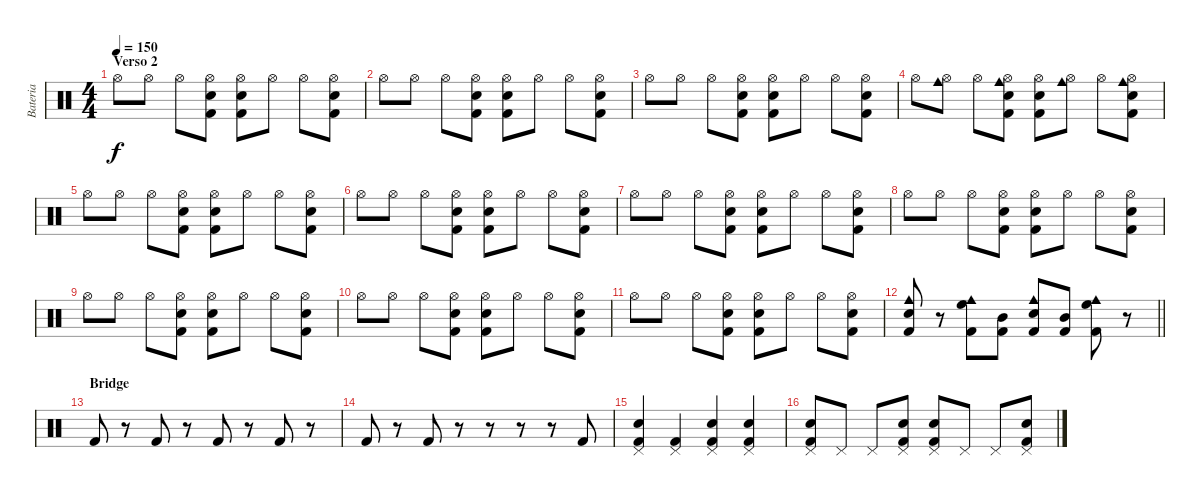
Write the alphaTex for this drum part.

\track ("Bateria" "Bateria") {instrument percussion}
\staff {score}
\articulation defaults
\ts (4 4)
\section ("" "Verso 2")
\tempo 150
\clef neutral
\ks c "Hi-Hat (open)".8{dy f} "Hi-Hat (open)".8 "Hi-Hat (open)".8
("Hi-Hat (open)" "Electric Snare (hit)" "Kick (hit) 2").8 ("Hi-Hat (open)" "Electric Snare (hit)" "Kick (hit) 2").8 "Hi-Hat (open)".8 "Hi-Hat (open)".8 ("Hi-Hat (open)" "Electric Snare (hit)" "Kick (hit) 2").8 |
"Hi-Hat (open)".8 "Hi-Hat (open)".8 "Hi-Hat (open)".8 ("Hi-Hat (open)" "Electric Snare (hit)" "Kick (hit) 2").8 ("Hi-Hat (open)" "Electric Snare (hit)" "Kick (hit) 2").8 "Hi-Hat (open)".8 "Hi-Hat (open)".8 ("Hi-Hat (open)" "Electric Snare (hit)" "Kick (hit) 2").8 |
"Hi-Hat (open)".8 "Hi-Hat (open)".8 "Hi-Hat (open)".8 ("Hi-Hat (open)" "Electric Snare (hit)" "Kick (hit) 2").8 ("Hi-Hat (open)" "Electric Snare (hit)" "Kick (hit) 2").8 "Hi-Hat (open)".8 "Hi-Hat (open)".8 ("Hi-Hat (open)" "Electric Snare (hit)" "Kick (hit) 2").8 |
"Hi-Hat (open)".8 ("Cowbell medium (hit)" "Hi-Hat (open)").8 "Hi-Hat (open)".8 ("Cowbell medium (hit)" "Hi-Hat (open)" "Electric Snare (hit)" "Kick (hit) 2").8 ("Hi-Hat (open)" "Electric Snare (hit)" "Kick (hit) 2").8 ("Cowbell medium (hit)" "Hi-Hat (open)").8 "Hi-Hat (open)".8 ("Cowbell medium (hit)" "Hi-Hat (open)" "Electric Snare (hit)" "Kick (hit) 2").8 |
"Hi-Hat (open)".8 "Hi-Hat (open)".8 "Hi-Hat (open)".8 ("Hi-Hat (open)" "Electric Snare (hit)" "Kick (hit) 2").8 ("Hi-Hat (open)" "Electric Snare (hit)" "Kick (hit) 2").8 "Hi-Hat (open)".8 "Hi-Hat (open)".8 ("Hi-Hat (open)" "Electric Snare (hit)" "Kick (hit) 2").8 |
"Hi-Hat (open)".8 "Hi-Hat (open)".8 "Hi-Hat (open)".8 ("Hi-Hat (open)" "Electric Snare (hit)" "Kick (hit) 2").8 ("Hi-Hat (open)" "Electric Snare (hit)" "Kick (hit) 2").8 "Hi-Hat (open)".8 "Hi-Hat (open)".8 ("Hi-Hat (open)" "Electric Snare (hit)" "Kick (hit) 2").8 |
"Hi-Hat (open)".8 "Hi-Hat (open)".8 "Hi-Hat (open)".8 ("Hi-Hat (open)" "Electric Snare (hit)" "Kick (hit) 2").8 ("Hi-Hat (open)" "Electric Snare (hit)" "Kick (hit) 2").8 "Hi-Hat (open)".8 "Hi-Hat (open)".8 ("Hi-Hat (open)" "Electric Snare (hit)" "Kick (hit) 2").8 |
"Hi-Hat (open)".8 "Hi-Hat (open)".8 "Hi-Hat (open)".8 ("Hi-Hat (open)" "Electric Snare (hit)" "Kick (hit) 2").8 ("Hi-Hat (open)" "Electric Snare (hit)" "Kick (hit) 2").8 "Hi-Hat (open)".8 "Hi-Hat (open)".8 ("Hi-Hat (open)" "Electric Snare (hit)" "Kick (hit) 2").8 |
"Hi-Hat (open)".8 "Hi-Hat (open)".8 "Hi-Hat (open)".8 ("Hi-Hat (open)" "Electric Snare (hit)" "Kick (hit) 2").8 ("Hi-Hat (open)" "Electric Snare (hit)" "Kick (hit) 2").8 "Hi-Hat (open)".8 "Hi-Hat (open)".8 ("Hi-Hat (open)" "Electric Snare (hit)" "Kick (hit) 2").8 |
"Hi-Hat (open)".8 "Hi-Hat (open)".8 "Hi-Hat (open)".8 ("Hi-Hat (open)" "Electric Snare (hit)" "Kick (hit) 2").8 ("Hi-Hat (open)" "Electric Snare (hit)" "Kick (hit) 2").8 "Hi-Hat (open)".8 "Hi-Hat (open)".8 ("Hi-Hat (open)" "Electric Snare (hit)" "Kick (hit) 2").8 |
"Hi-Hat (open)".8 "Hi-Hat (open)".8 "Hi-Hat (open)".8 ("Hi-Hat (open)" "Electric Snare (hit)" "Kick (hit) 2").8 ("Hi-Hat (open)" "Electric Snare (hit)" "Kick (hit) 2").8 "Hi-Hat (open)".8 "Hi-Hat (open)".8 ("Hi-Hat (open)" "Electric Snare (hit)" "Kick (hit) 2").8 |
\barLineRight lightlight
("Cowbell medium (hit)" "Snare (hit) 2" "Kick (hit) 2").8 r.8 ("Cowbell medium (hit)" "High Floor Tom (hit)" "Kick (hit) 2").8 ("Mid Tom (hit)" "Kick (hit) 2").8 ("Cowbell medium (hit)" "Snare (hit) 2" "Kick (hit) 2").8 ("Mid Tom (hit)" "Kick (hit) 2").8 ("Cowbell medium (hit)" "High Floor Tom (hit)" "Kick (hit) 2").8 r.8 |
\section ("" "Bridge")
"Kick (hit) 2".8 r.8 "Kick (hit) 2".8 r.8 "Kick (hit) 2".8 r.8 "Kick (hit) 2".8 r.8 |
"Kick (hit) 2".8 r.8 "Kick (hit) 2".8 r.8 r.8 r.8 r.8 "Kick (hit) 2".8 |
("Pedal Hi-Hat (hit)" "Electric Snare (hit)" "Kick (hit) 2").4 ("Pedal Hi-Hat (hit)" "Kick (hit) 2").4 ("Pedal Hi-Hat (hit)" "Electric Snare (hit)" "Kick (hit) 2").4 ("Pedal Hi-Hat (hit)" "Electric Snare (hit)" "Kick (hit) 2").4 |
("Pedal Hi-Hat (hit)" "Electric Snare (hit)" "Kick (hit) 2").8 "Pedal Hi-Hat (hit)".8 "Pedal Hi-Hat (hit)".8 ("Pedal Hi-Hat (hit)" "Electric Snare (hit)" "Kick (hit) 2").8 ("Pedal Hi-Hat (hit)" "Electric Snare (hit)" "Kick (hit) 2").8 "Pedal Hi-Hat (hit)".8 "Pedal Hi-Hat (hit)".8 ("Pedal Hi-Hat (hit)" "Electric Snare (hit)" "Kick (hit) 2").8
